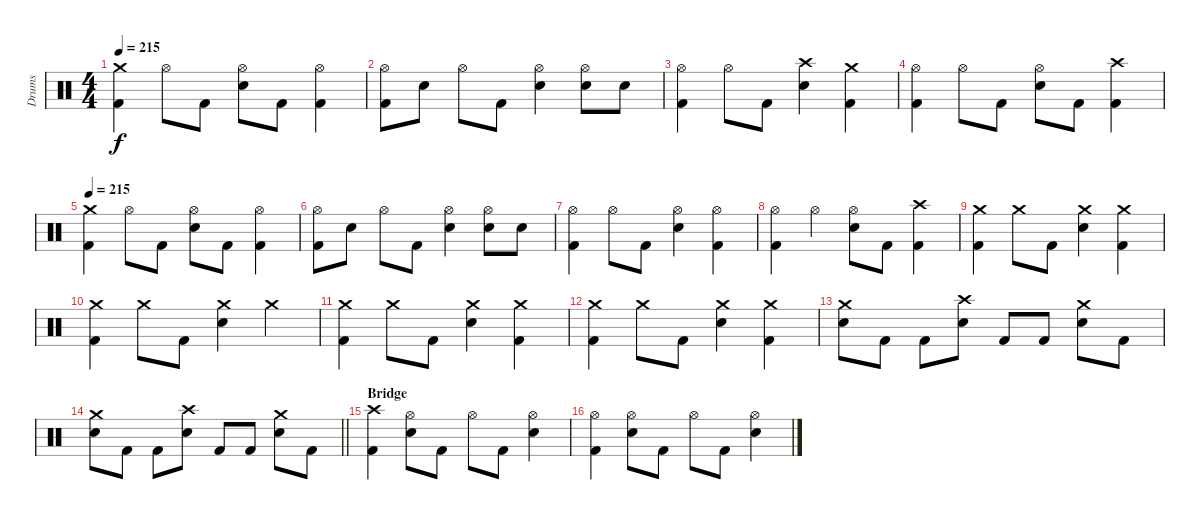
\track ("Drums" "Drums") {instrument percussion}
\staff {score}
\articulation defaults
\ts (4 4)
\tempo 215
\clef neutral
\ks c
("Crash medium (hit)" "Kick (hit) 2").4{dy f} "Hi-Hat (open)".8 "Kick (hit) 2".8 ("Hi-Hat (open)" "Electric Snare (hit)").8 "Kick (hit) 2".8 ("Hi-Hat (open)" "Kick (hit) 2").4 |
("Hi-Hat (open)" "Kick (hit) 2").8 "Electric Snare (hit)".8 "Hi-Hat (open)".8 "Kick (hit) 2".8 ("Hi-Hat (open)" "Electric Snare (hit)").4 ("Hi-Hat (open)" "Electric Snare (hit)").8 "Electric Snare (hit)".8 |
("Hi-Hat (open)" "Kick (hit) 2").4 "Hi-Hat (open)".8 "Kick (hit) 2".8 ("Crash high (hit)" "Electric Snare (hit)").4 ("Crash medium (hit)" "Kick (hit) 2").4 |
("Hi-Hat (open)" "Kick (hit) 2").4 "Hi-Hat (open)".8 "Kick (hit) 2".8 ("Hi-Hat (open)" "Electric Snare (hit)").8 "Kick (hit) 2".8 ("Crash high (hit)" "Kick (hit) 2").4 |
\tempo 215
("Crash medium (hit)" "Kick (hit) 2").4 "Hi-Hat (open)".8 "Kick (hit) 2".8 ("Hi-Hat (open)" "Electric Snare (hit)").8 "Kick (hit) 2".8 ("Hi-Hat (open)" "Kick (hit) 2").4 |
("Hi-Hat (open)" "Kick (hit) 2").8 "Electric Snare (hit)".8 "Hi-Hat (open)".8 "Kick (hit) 2".8 ("Hi-Hat (open)" "Electric Snare (hit)").4 ("Hi-Hat (open)" "Electric Snare (hit)").8 "Electric Snare (hit)".8 |
("Hi-Hat (open)" "Kick (hit) 2").4 "Hi-Hat (open)".8 "Kick (hit) 2".8 ("Hi-Hat (open)" "Electric Snare (hit)").4 ("Hi-Hat (open)" "Kick (hit) 2").4 |
("Hi-Hat (open)" "Kick (hit) 2").4 "Hi-Hat (open)".4 ("Hi-Hat (open)" "Electric Snare (hit)").8 "Kick (hit) 2".8 ("Crash high (hit)" "Kick (hit) 2").4 |
("Crash medium (hit)" "Kick (hit) 2").4 "Crash medium (hit)".8 "Kick (hit) 2".8 ("Crash medium (hit)" "Electric Snare (hit)").4 ("Crash medium (hit)" "Kick (hit) 2").4 |
("Crash medium (hit)" "Kick (hit) 2").4 "Crash medium (hit)".8 "Kick (hit) 2".8 ("Crash medium (hit)" "Electric Snare (hit)").4 "Crash medium (hit)".4 |
("Crash medium (hit)" "Kick (hit) 2").4 "Crash medium (hit)".8 "Kick (hit) 2".8 ("Crash medium (hit)" "Electric Snare (hit)").4 ("Crash medium (hit)" "Kick (hit) 2").4 |
("Crash medium (hit)" "Kick (hit) 2").4 "Crash medium (hit)".8 "Kick (hit) 2".8 ("Crash medium (hit)" "Electric Snare (hit)").4 ("Crash medium (hit)" "Kick (hit) 2").4 |
("Crash medium (hit)" "Electric Snare (hit)").8 "Kick (hit) 2".8 "Kick (hit) 2".8 ("Crash high (hit)" "Electric Snare (hit)").8 "Kick (hit) 2".8 "Kick (hit) 2".8 ("Crash medium (hit)" "Electric Snare (hit)").8 "Kick (hit) 2".8 |
\barLineRight lightlight
("Crash medium (hit)" "Electric Snare (hit)").8 "Kick (hit) 2".8 "Kick (hit) 2".8 ("Crash high (hit)" "Electric Snare (hit)").8 "Kick (hit) 2".8 "Kick (hit) 2".8 ("Crash medium (hit)" "Electric Snare (hit)").8 "Kick (hit) 2".8 |
\section ("" "Bridge")
("Crash high (hit)" "Kick (hit) 2").4 ("Hi-Hat (open)" "Electric Snare (hit)").8 "Kick (hit) 2".8 "Hi-Hat (open)".8 "Kick (hit) 2".8 ("Hi-Hat (open)" "Electric Snare (hit)").4 |
("Hi-Hat (open)" "Kick (hit) 2").4 ("Hi-Hat (open)" "Electric Snare (hit)").8 "Kick (hit) 2".8 "Hi-Hat (open)".8 "Kick (hit) 2".8 ("Hi-Hat (open)" "Electric Snare (hit)").4
